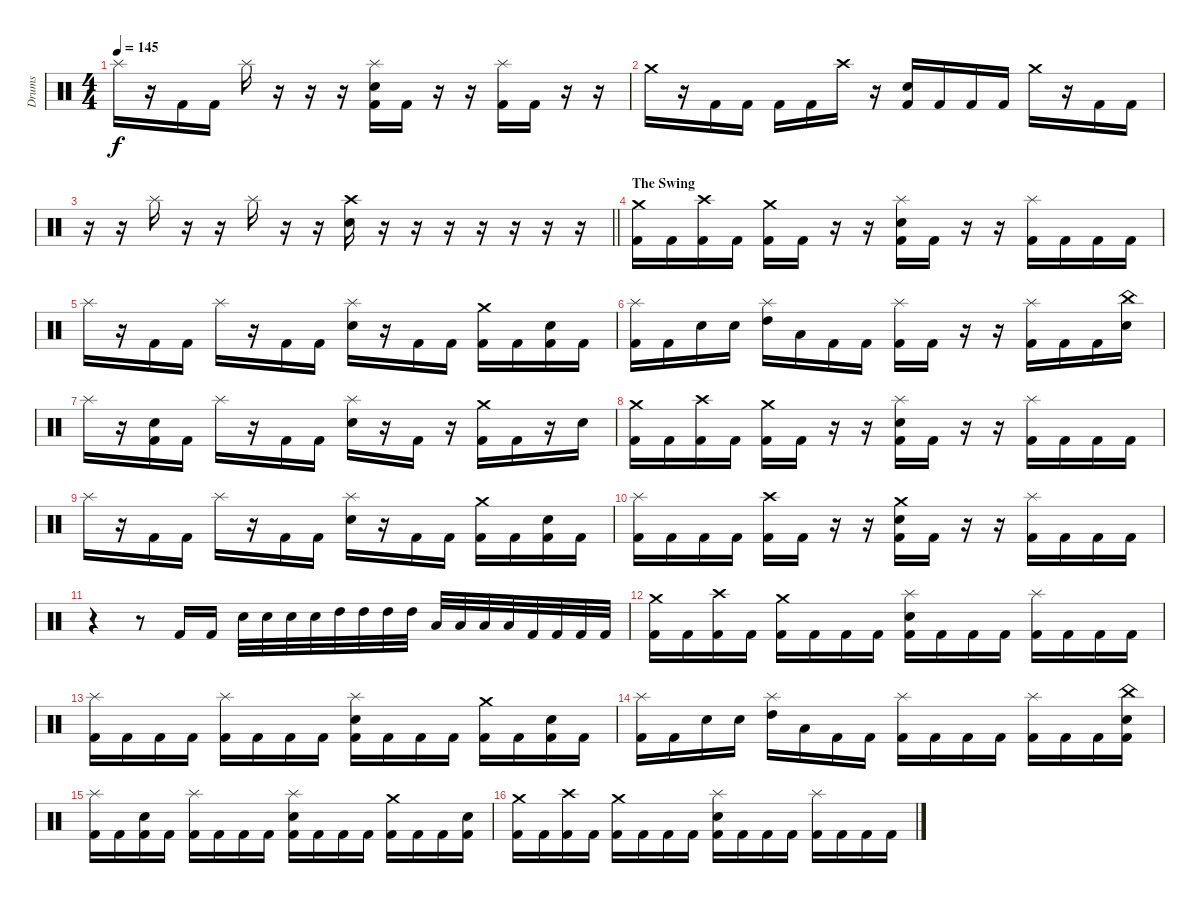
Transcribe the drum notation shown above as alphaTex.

\track ("Drums" "Drums") {instrument percussion}
\staff {score}
\articulation defaults
\ts (4 4)
\tempo 145
\clef neutral
\ks c "Splash (hit)".16{dy f}
r.16 "Kick (hit) 2".16 "Kick (hit) 2".16 "Splash (hit)".16 r.16 r.16 r.16 ("Splash (hit)" "Electric Snare (hit)" "Kick (hit) 2").16 "Kick (hit) 2".16 r.16 r.16 ("Splash (hit)" "Kick (hit) 2").16 "Kick (hit) 2".16 r.16 r.16 |
"Crash medium (hit)".16 r.16 "Kick (hit) 2".16 "Kick (hit) 2".16 "Kick (hit) 2".16 "Kick (hit) 2".16 "Crash high (hit)".16 r.16 ("Electric Snare (hit)" "Kick (hit) 2").16 "Kick (hit) 2".16 "Kick (hit) 2".16 "Kick (hit) 2".16 "Crash medium (hit)".16 r.16 "Kick (hit) 2".16 "Kick (hit) 2".16 |
\barLineRight lightlight
r.16 r.16 "Splash (hit)".16 r.16 r.16 "Splash (hit)".16 r.16 r.16 ("Crash high (hit)" "Electric Snare (hit)").16 r.16 r.16 r.16 r.16 r.16 r.16 r.16 |
\section ("" "The Swing")
("Crash medium (hit)" "Kick (hit) 2").16 "Kick (hit) 2".16 ("Crash high (hit)" "Kick (hit) 2").16 "Kick (hit) 2".16 ("Crash medium (hit)" "Kick (hit) 2").16 "Kick (hit) 2".16 r.16 r.16 ("Splash (hit)" "Electric Snare (hit)" "Kick (hit) 2").16 "Kick (hit) 2".16 r.16 r.16 ("Splash (hit)" "Kick (hit) 2").16 "Kick (hit) 2".16 "Kick (hit) 2".16 "Kick (hit) 2".16 |
"Splash (hit)".16 r.16 "Kick (hit) 2".16 "Kick (hit) 2".16 "Splash (hit)".16 r.16 "Kick (hit) 2".16 "Kick (hit) 2".16 ("Splash (hit)" "Electric Snare (hit)").16 r.16 "Kick (hit) 2".16 "Kick (hit) 2".16 ("Crash medium (hit)" "Kick (hit) 2").16 "Kick (hit) 2".16 ("Electric Snare (hit)" "Kick (hit) 2").16 "Kick (hit) 2".16 |
("Splash (hit)" "Kick (hit) 2").16 "Kick (hit) 2".16 "Electric Snare (hit)".16 "Electric Snare (hit)".16 ("Splash (hit)" "High Tom (hit)").16 "Low Tom (hit)".16 "Kick (hit) 2".16 "Kick (hit) 2".16 ("Splash (hit)" "Kick (hit) 2").16 "Kick (hit) 2".16 r.16 r.16 ("Splash (hit)" "Kick (hit) 2").16 "Kick (hit) 2".16 "Kick (hit) 2".16 ("China (hit)" "Electric Snare (hit)").16 |
"Splash (hit)".16 r.16 ("Electric Snare (hit)" "Kick (hit) 2").16 "Kick (hit) 2".16 "Splash (hit)".16 r.16 "Kick (hit) 2".16 "Kick (hit) 2".16 ("Splash (hit)" "Electric Snare (hit)").16 r.16 "Kick (hit) 2".16 r.16 ("Crash medium (hit)" "Kick (hit) 2").16 "Kick (hit) 2".16 r.16 "Electric Snare (hit)".16 |
("Crash medium (hit)" "Kick (hit) 2").16 "Kick (hit) 2".16 ("Crash high (hit)" "Kick (hit) 2").16 "Kick (hit) 2".16 ("Crash medium (hit)" "Kick (hit) 2").16 "Kick (hit) 2".16 r.16 r.16 ("Splash (hit)" "Electric Snare (hit)" "Kick (hit) 2").16 "Kick (hit) 2".16 r.16 r.16 ("Splash (hit)" "Kick (hit) 2").16 "Kick (hit) 2".16 "Kick (hit) 2".16 "Kick (hit) 2".16 |
"Splash (hit)".16 r.16 "Kick (hit) 2".16 "Kick (hit) 2".16 "Splash (hit)".16 r.16 "Kick (hit) 2".16 "Kick (hit) 2".16 ("Splash (hit)" "Electric Snare (hit)").16 r.16 "Kick (hit) 2".16 "Kick (hit) 2".16 ("Crash medium (hit)" "Kick (hit) 2").16 "Kick (hit) 2".16 ("Electric Snare (hit)" "Kick (hit) 2").16 "Kick (hit) 2".16 |
("Splash (hit)" "Kick (hit) 2").16 "Kick (hit) 2".16 "Kick (hit) 2".16 "Kick (hit) 2".16 ("Crash high (hit)" "Kick (hit) 2").16 "Kick (hit) 2".16 r.16 r.16 ("Crash medium (hit)" "Electric Snare (hit)" "Kick (hit) 2").16 "Kick (hit) 2".16 r.16 r.16 ("Splash (hit)" "Kick (hit) 2").16 "Kick (hit) 2".16 "Kick (hit) 2".16 "Kick (hit) 2".16 |
r.4 r.8 "Kick (hit) 2".16 "Kick (hit) 2".16 "Electric Snare (hit)".32 "Electric Snare (hit)".32 "Electric Snare (hit)".32 "Electric Snare (hit)".32 "High Tom (hit)".32 "High Tom (hit)".32 "High Tom (hit)".32 "High Tom (hit)".32 "Low Tom (hit)".32 "Low Tom (hit)".32 "Low Tom (hit)".32 "Low Tom (hit)".32 "Kick (hit) 2".32 "Kick (hit) 2".32 "Kick (hit) 2".32 "Kick (hit) 2".32 |
("Crash medium (hit)" "Kick (hit) 2").16 "Kick (hit) 2".16 ("Crash high (hit)" "Kick (hit) 2").16 "Kick (hit) 2".16 ("Crash medium (hit)" "Kick (hit) 2").16 "Kick (hit) 2".16 "Kick (hit) 2".16 "Kick (hit) 2".16 ("Splash (hit)" "Electric Snare (hit)" "Kick (hit) 2").16 "Kick (hit) 2".16 "Kick (hit) 2".16 "Kick (hit) 2".16 ("Splash (hit)" "Kick (hit) 2").16 "Kick (hit) 2".16 "Kick (hit) 2".16 "Kick (hit) 2".16 |
("Splash (hit)" "Kick (hit) 2").16 "Kick (hit) 2".16 "Kick (hit) 2".16 "Kick (hit) 2".16 ("Splash (hit)" "Kick (hit) 2").16 "Kick (hit) 2".16 "Kick (hit) 2".16 "Kick (hit) 2".16 ("Splash (hit)" "Electric Snare (hit)" "Kick (hit) 2").16 "Kick (hit) 2".16 "Kick (hit) 2".16 "Kick (hit) 2".16 ("Crash medium (hit)" "Kick (hit) 2").16 "Kick (hit) 2".16 ("Electric Snare (hit)" "Kick (hit) 2").16 "Kick (hit) 2".16 |
("Splash (hit)" "Kick (hit) 2").16 "Kick (hit) 2".16 "Electric Snare (hit)".16 "Electric Snare (hit)".16 ("Splash (hit)" "High Tom (hit)").16 "Low Tom (hit)".16 "Kick (hit) 2".16 "Kick (hit) 2".16 ("Splash (hit)" "Kick (hit) 2").16 "Kick (hit) 2".16 "Kick (hit) 2".16 "Kick (hit) 2".16 ("Splash (hit)" "Kick (hit) 2").16 "Kick (hit) 2".16 "Kick (hit) 2".16 ("China (hit)" "Electric Snare (hit)" "Kick (hit) 2").16 |
("Splash (hit)" "Kick (hit) 2").16 "Kick (hit) 2".16 ("Electric Snare (hit)" "Kick (hit) 2").16 "Kick (hit) 2".16 ("Splash (hit)" "Kick (hit) 2").16 "Kick (hit) 2".16 "Kick (hit) 2".16 "Kick (hit) 2".16 ("Splash (hit)" "Electric Snare (hit)" "Kick (hit) 2").16 "Kick (hit) 2".16 "Kick (hit) 2".16 "Kick (hit) 2".16 ("Crash medium (hit)" "Kick (hit) 2").16 "Kick (hit) 2".16 "Kick (hit) 2".16 ("Electric Snare (hit)" "Kick (hit) 2").16 |
("Crash medium (hit)" "Kick (hit) 2").16 "Kick (hit) 2".16 ("Crash high (hit)" "Kick (hit) 2").16 "Kick (hit) 2".16 ("Crash medium (hit)" "Kick (hit) 2").16 "Kick (hit) 2".16 "Kick (hit) 2".16 "Kick (hit) 2".16 ("Splash (hit)" "Electric Snare (hit)" "Kick (hit) 2").16 "Kick (hit) 2".16 "Kick (hit) 2".16 "Kick (hit) 2".16 ("Splash (hit)" "Kick (hit) 2").16 "Kick (hit) 2".16 "Kick (hit) 2".16 "Kick (hit) 2".16
